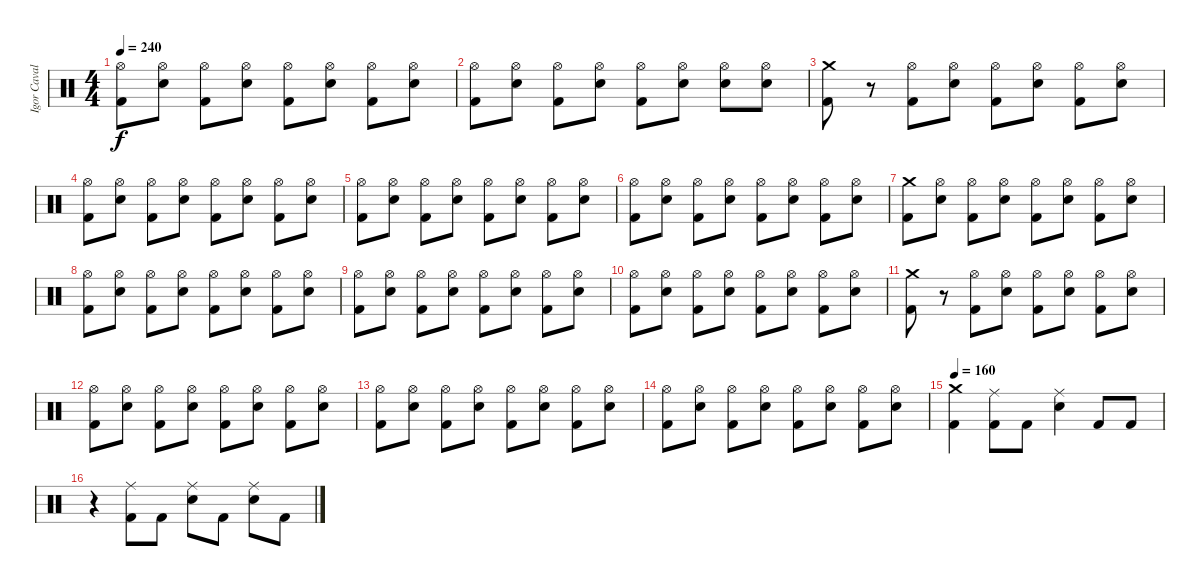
\track ("Igor Cavalera" "Igor Caval") {instrument percussion}
\staff {score}
\articulation defaults
\ts (4 4)
\tempo 240
\clef neutral
\ks c
("Hi-Hat (open)" "Kick (hit) 2").8{dy f} ("Electric Snare (hit)" "Hi-Hat (open)").8 ("Kick (hit) 2" "Hi-Hat (open)").8 ("Electric Snare (hit)" "Hi-Hat (open)").8 ("Kick (hit) 2" "Hi-Hat (open)").8 ("Electric Snare (hit)" "Hi-Hat (open)").8 ("Kick (hit) 2" "Hi-Hat (open)").8 ("Electric Snare (hit)" "Hi-Hat (open)").8 |
("Hi-Hat (open)" "Kick (hit) 2").8 ("Electric Snare (hit)" "Hi-Hat (open)").8 ("Kick (hit) 2" "Hi-Hat (open)").8 ("Electric Snare (hit)" "Hi-Hat (open)").8 ("Kick (hit) 2" "Hi-Hat (open)").8 ("Electric Snare (hit)" "Hi-Hat (open)").8 ("Electric Snare (hit)" "Hi-Hat (open)").8 ("Electric Snare (hit)" "Hi-Hat (open)").8 |
("Crash medium (hit)" "Kick (hit) 2").8 r.8 ("Kick (hit) 2" "Hi-Hat (open)").8 ("Electric Snare (hit)" "Hi-Hat (open)").8 ("Kick (hit) 2" "Hi-Hat (open)").8 ("Electric Snare (hit)" "Hi-Hat (open)").8 ("Kick (hit) 2" "Hi-Hat (open)").8 ("Electric Snare (hit)" "Hi-Hat (open)").8 |
("Hi-Hat (open)" "Kick (hit) 2").8 ("Electric Snare (hit)" "Hi-Hat (open)").8 ("Kick (hit) 2" "Hi-Hat (open)").8 ("Electric Snare (hit)" "Hi-Hat (open)").8 ("Kick (hit) 2" "Hi-Hat (open)").8 ("Electric Snare (hit)" "Hi-Hat (open)").8 ("Kick (hit) 2" "Hi-Hat (open)").8 ("Electric Snare (hit)" "Hi-Hat (open)").8 |
("Hi-Hat (open)" "Kick (hit) 2").8 ("Electric Snare (hit)" "Hi-Hat (open)").8 ("Kick (hit) 2" "Hi-Hat (open)").8 ("Electric Snare (hit)" "Hi-Hat (open)").8 ("Kick (hit) 2" "Hi-Hat (open)").8 ("Electric Snare (hit)" "Hi-Hat (open)").8 ("Kick (hit) 2" "Hi-Hat (open)").8 ("Electric Snare (hit)" "Hi-Hat (open)").8 |
("Hi-Hat (open)" "Kick (hit) 2").8 ("Electric Snare (hit)" "Hi-Hat (open)").8 ("Kick (hit) 2" "Hi-Hat (open)").8 ("Electric Snare (hit)" "Hi-Hat (open)").8 ("Kick (hit) 2" "Hi-Hat (open)").8 ("Electric Snare (hit)" "Hi-Hat (open)").8 ("Kick (hit) 2" "Hi-Hat (open)").8 ("Electric Snare (hit)" "Hi-Hat (open)").8 |
("Crash medium (hit)" "Kick (hit) 2").8 ("Electric Snare (hit)" "Hi-Hat (open)").8 ("Kick (hit) 2" "Hi-Hat (open)").8 ("Electric Snare (hit)" "Hi-Hat (open)").8 ("Kick (hit) 2" "Hi-Hat (open)").8 ("Electric Snare (hit)" "Hi-Hat (open)").8 ("Kick (hit) 2" "Hi-Hat (open)").8 ("Electric Snare (hit)" "Hi-Hat (open)").8 |
("Hi-Hat (open)" "Kick (hit) 2").8 ("Electric Snare (hit)" "Hi-Hat (open)").8 ("Kick (hit) 2" "Hi-Hat (open)").8 ("Electric Snare (hit)" "Hi-Hat (open)").8 ("Kick (hit) 2" "Hi-Hat (open)").8 ("Electric Snare (hit)" "Hi-Hat (open)").8 ("Kick (hit) 2" "Hi-Hat (open)").8 ("Electric Snare (hit)" "Hi-Hat (open)").8 |
("Hi-Hat (open)" "Kick (hit) 2").8 ("Electric Snare (hit)" "Hi-Hat (open)").8 ("Kick (hit) 2" "Hi-Hat (open)").8 ("Electric Snare (hit)" "Hi-Hat (open)").8 ("Kick (hit) 2" "Hi-Hat (open)").8 ("Electric Snare (hit)" "Hi-Hat (open)").8 ("Kick (hit) 2" "Hi-Hat (open)").8 ("Electric Snare (hit)" "Hi-Hat (open)").8 |
("Hi-Hat (open)" "Kick (hit) 2").8 ("Electric Snare (hit)" "Hi-Hat (open)").8 ("Kick (hit) 2" "Hi-Hat (open)").8 ("Electric Snare (hit)" "Hi-Hat (open)").8 ("Kick (hit) 2" "Hi-Hat (open)").8 ("Electric Snare (hit)" "Hi-Hat (open)").8 ("Kick (hit) 2" "Hi-Hat (open)").8 ("Electric Snare (hit)" "Hi-Hat (open)").8 |
("Crash medium (hit)" "Kick (hit) 2").8 r.8 ("Kick (hit) 2" "Hi-Hat (open)").8 ("Electric Snare (hit)" "Hi-Hat (open)").8 ("Kick (hit) 2" "Hi-Hat (open)").8 ("Electric Snare (hit)" "Hi-Hat (open)").8 ("Kick (hit) 2" "Hi-Hat (open)").8 ("Electric Snare (hit)" "Hi-Hat (open)").8 |
("Hi-Hat (open)" "Kick (hit) 2").8 ("Electric Snare (hit)" "Hi-Hat (open)").8 ("Kick (hit) 2" "Hi-Hat (open)").8 ("Electric Snare (hit)" "Hi-Hat (open)").8 ("Kick (hit) 2" "Hi-Hat (open)").8 ("Electric Snare (hit)" "Hi-Hat (open)").8 ("Kick (hit) 2" "Hi-Hat (open)").8 ("Electric Snare (hit)" "Hi-Hat (open)").8 |
("Hi-Hat (open)" "Kick (hit) 2").8 ("Electric Snare (hit)" "Hi-Hat (open)").8 ("Kick (hit) 2" "Hi-Hat (open)").8 ("Electric Snare (hit)" "Hi-Hat (open)").8 ("Kick (hit) 2" "Hi-Hat (open)").8 ("Electric Snare (hit)" "Hi-Hat (open)").8 ("Kick (hit) 2" "Hi-Hat (open)").8 ("Electric Snare (hit)" "Hi-Hat (open)").8 |
("Hi-Hat (open)" "Kick (hit) 2").8 ("Electric Snare (hit)" "Hi-Hat (open)").8 ("Kick (hit) 2" "Hi-Hat (open)").8 ("Electric Snare (hit)" "Hi-Hat (open)").8 ("Kick (hit) 2" "Hi-Hat (open)").8 ("Electric Snare (hit)" "Hi-Hat (open)").8 ("Kick (hit) 2" "Hi-Hat (open)").8 ("Electric Snare (hit)" "Hi-Hat (open)").8 |
\tempo 160
("Crash medium (hit)" "Kick (hit) 2").4 ("Kick (hit) 2" "Ride (middle)").8 "Kick (hit) 2".8 ("Electric Snare (hit)" "Ride (middle)").4 "Kick (hit) 2".8 "Kick (hit) 2".8 |
r.4 ("Kick (hit) 2" "Ride (middle)").8 "Kick (hit) 2".8 ("Electric Snare (hit)" "Ride (middle)").8 "Kick (hit) 2".8 ("Electric Snare (hit)" "Ride (middle)").8 "Kick (hit) 2".8
